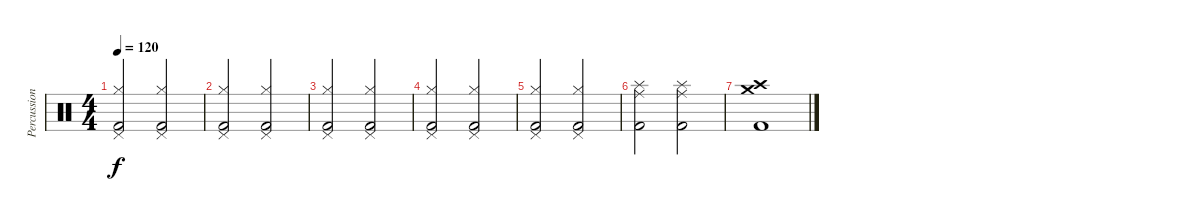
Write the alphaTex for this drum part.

\track ("Percussion" "Percussion") {instrument percussion}
\staff {score}
\articulation defaults
\ts (4 4)
\tempo 120
\clef neutral
\ks c
("Pedal Hi-Hat (hit)" "Hi-Hat (closed)" "Kick (hit) 2").2{dy f} ("Pedal Hi-Hat (hit)" "Hi-Hat (closed)" "Kick (hit) 2").2 |
("Pedal Hi-Hat (hit)" "Hi-Hat (closed)" "Kick (hit) 2").2 ("Pedal Hi-Hat (hit)" "Hi-Hat (closed)" "Kick (hit) 2").2 |
("Pedal Hi-Hat (hit)" "Hi-Hat (closed)" "Kick (hit) 2").2 ("Pedal Hi-Hat (hit)" "Hi-Hat (closed)" "Kick (hit) 2").2 |
("Pedal Hi-Hat (hit)" "Hi-Hat (closed)" "Kick (hit) 2").2 ("Pedal Hi-Hat (hit)" "Hi-Hat (closed)" "Kick (hit) 2").2 |
("Pedal Hi-Hat (hit)" "Hi-Hat (closed)" "Kick (hit) 2").2 ("Pedal Hi-Hat (hit)" "Hi-Hat (closed)" "Kick (hit) 2").2 |
("Splash (hit)" "Ride (middle)" "Kick (hit) 2").2 ("Splash (hit)" "Ride (middle)" "Kick (hit) 2").2 |
("Crash high (hit)" "Crash medium (hit)" "Kick (hit) 2").1
